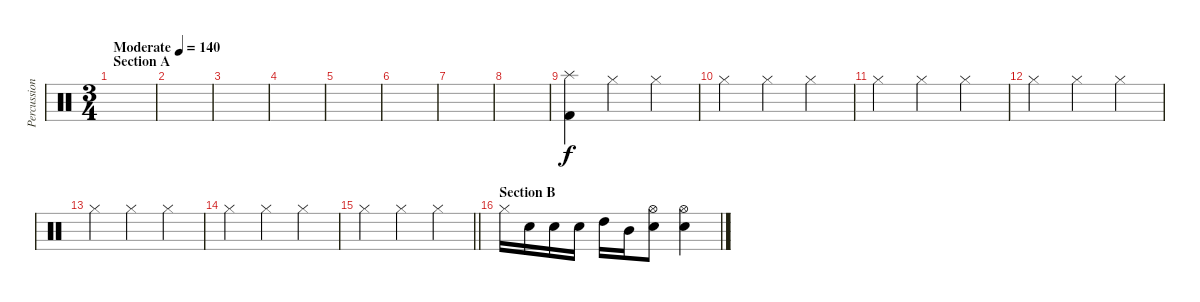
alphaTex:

\track ("Percussion" "Percussion") {instrument percussion}
\staff {score}
\articulation defaults
\ts (3 4)
\section ("" "Section A")
\tempo (140 "Moderate")
\clef neutral
\ks c
|
|
|
|
|
|
|
|
("Splash (hit)" "Kick (hit) 2").4 "Hi-Hat (closed)".4 "Hi-Hat (closed)".4 |
"Hi-Hat (closed)".4 "Hi-Hat (closed)".4 "Hi-Hat (closed)".4 |
"Hi-Hat (closed)".4 "Hi-Hat (closed)".4 "Hi-Hat (closed)".4 |
"Hi-Hat (closed)".4 "Hi-Hat (closed)".4 "Hi-Hat (closed)".4 |
"Hi-Hat (closed)".4 "Hi-Hat (closed)".4 "Hi-Hat (closed)".4 |
"Hi-Hat (closed)".4 "Hi-Hat (closed)".4 "Hi-Hat (closed)".4 |
\barLineRight lightlight "Hi-Hat (closed)".4 "Hi-Hat (closed)".4 "Hi-Hat (closed)".4
|
\section ("" "Section B")
"Hi-Hat (closed)".16 "Electric Snare (hit)".16 "Electric Snare (hit)".16 "Electric Snare (hit)".16 "High Tom (hit)".16 "Mid Tom (hit)".16 ("Hi-Hat (open)" "Electric Snare (hit)").8 ("Hi-Hat (open)" "Electric Snare (hit)").4
